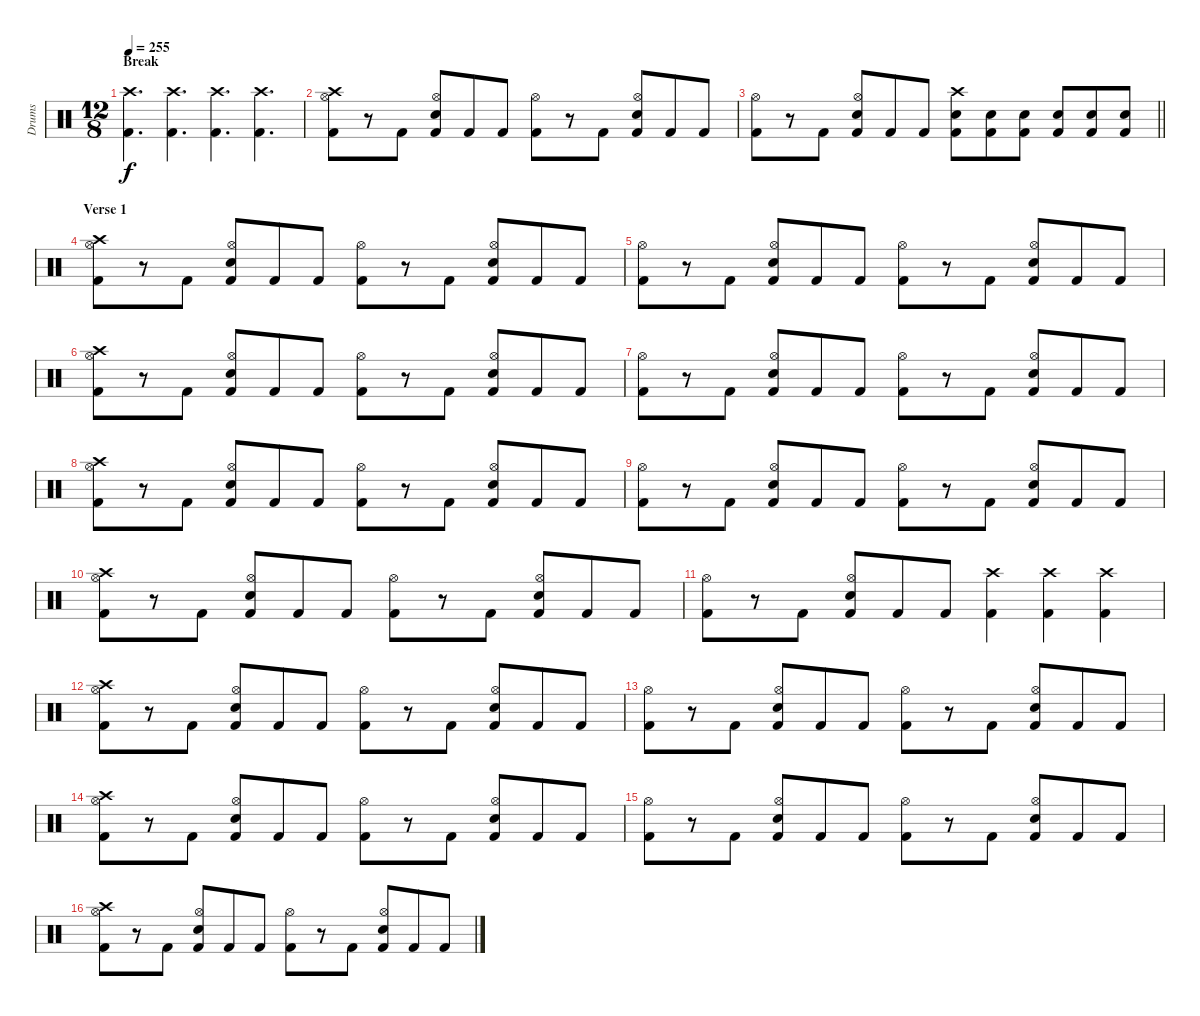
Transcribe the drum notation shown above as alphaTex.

\track ("Drums" "Drums") {instrument percussion}
\staff {score}
\articulation defaults
\ts (12 8)
\section ("" "Break")
\tempo 255
\clef neutral
\ks c
("Crash high (hit)" "Kick (hit) 2").4{d dy f} ("Crash high (hit)" "Kick (hit) 2").4{d} ("Crash high (hit)" "Kick (hit) 2").4{d} ("Crash high (hit)" "Kick (hit) 2").4{d} |
("Crash high (hit)" "Hi-Hat (open)" "Kick (hit) 2").8 r.8 "Kick (hit) 2".8 ("Hi-Hat (open)" "Snare (hit) 2" "Kick (hit) 2").8 "Kick (hit) 2".8 "Kick (hit) 2".8 ("Hi-Hat (open)" "Kick (hit) 2").8 r.8 "Kick (hit) 2".8 ("Hi-Hat (open)" "Snare (hit) 2" "Kick (hit) 2").8 "Kick (hit) 2".8 "Kick (hit) 2".8 |
\barLineRight lightlight
("Hi-Hat (open)" "Kick (hit) 2").8 r.8 "Kick (hit) 2".8 ("Hi-Hat (open)" "Snare (hit) 2" "Kick (hit) 2").8 "Kick (hit) 2".8 "Kick (hit) 2".8 ("Crash high (hit)" "Snare (hit) 2" "Kick (hit) 2").8 ("Snare (hit) 2" "Kick (hit) 2").8 ("Snare (hit) 2" "Kick (hit) 2").8 ("Snare (hit) 2" "Kick (hit) 2").8 ("Snare (hit) 2" "Kick (hit) 2").8 ("Snare (hit) 2" "Kick (hit) 2").8 |
\section ("" "Verse 1")
("Crash high (hit)" "Hi-Hat (open)" "Kick (hit) 2").8 r.8 "Kick (hit) 2".8 ("Hi-Hat (open)" "Snare (hit) 2" "Kick (hit) 2").8 "Kick (hit) 2".8 "Kick (hit) 2".8 ("Hi-Hat (open)" "Kick (hit) 2").8 r.8 "Kick (hit) 2".8 ("Hi-Hat (open)" "Snare (hit) 2" "Kick (hit) 2").8 "Kick (hit) 2".8 "Kick (hit) 2".8 |
("Hi-Hat (open)" "Kick (hit) 2").8 r.8 "Kick (hit) 2".8 ("Hi-Hat (open)" "Snare (hit) 2" "Kick (hit) 2").8 "Kick (hit) 2".8 "Kick (hit) 2".8 ("Hi-Hat (open)" "Kick (hit) 2").8 r.8 "Kick (hit) 2".8 ("Hi-Hat (open)" "Snare (hit) 2" "Kick (hit) 2").8 "Kick (hit) 2".8 "Kick (hit) 2".8 |
("Crash high (hit)" "Hi-Hat (open)" "Kick (hit) 2").8 r.8 "Kick (hit) 2".8 ("Hi-Hat (open)" "Snare (hit) 2" "Kick (hit) 2").8 "Kick (hit) 2".8 "Kick (hit) 2".8 ("Hi-Hat (open)" "Kick (hit) 2").8 r.8 "Kick (hit) 2".8 ("Hi-Hat (open)" "Snare (hit) 2" "Kick (hit) 2").8 "Kick (hit) 2".8 "Kick (hit) 2".8 |
("Hi-Hat (open)" "Kick (hit) 2").8 r.8 "Kick (hit) 2".8 ("Hi-Hat (open)" "Snare (hit) 2" "Kick (hit) 2").8 "Kick (hit) 2".8 "Kick (hit) 2".8 ("Hi-Hat (open)" "Kick (hit) 2").8 r.8 "Kick (hit) 2".8 ("Hi-Hat (open)" "Snare (hit) 2" "Kick (hit) 2").8 "Kick (hit) 2".8 "Kick (hit) 2".8 |
("Crash high (hit)" "Hi-Hat (open)" "Kick (hit) 2").8 r.8 "Kick (hit) 2".8 ("Hi-Hat (open)" "Snare (hit) 2" "Kick (hit) 2").8 "Kick (hit) 2".8 "Kick (hit) 2".8 ("Hi-Hat (open)" "Kick (hit) 2").8 r.8 "Kick (hit) 2".8 ("Hi-Hat (open)" "Snare (hit) 2" "Kick (hit) 2").8 "Kick (hit) 2".8 "Kick (hit) 2".8 |
("Hi-Hat (open)" "Kick (hit) 2").8 r.8 "Kick (hit) 2".8 ("Hi-Hat (open)" "Snare (hit) 2" "Kick (hit) 2").8 "Kick (hit) 2".8 "Kick (hit) 2".8 ("Hi-Hat (open)" "Kick (hit) 2").8 r.8 "Kick (hit) 2".8 ("Hi-Hat (open)" "Snare (hit) 2" "Kick (hit) 2").8 "Kick (hit) 2".8 "Kick (hit) 2".8 |
("Crash high (hit)" "Hi-Hat (open)" "Kick (hit) 2").8 r.8 "Kick (hit) 2".8 ("Hi-Hat (open)" "Snare (hit) 2" "Kick (hit) 2").8 "Kick (hit) 2".8 "Kick (hit) 2".8 ("Hi-Hat (open)" "Kick (hit) 2").8 r.8 "Kick (hit) 2".8 ("Hi-Hat (open)" "Snare (hit) 2" "Kick (hit) 2").8 "Kick (hit) 2".8 "Kick (hit) 2".8 |
("Hi-Hat (open)" "Kick (hit) 2").8 r.8 "Kick (hit) 2".8 ("Hi-Hat (open)" "Snare (hit) 2" "Kick (hit) 2").8 "Kick (hit) 2".8 "Kick (hit) 2".8 ("Crash high (hit)" "Kick (hit) 2").4 ("Crash high (hit)" "Kick (hit) 2").4 ("Crash high (hit)" "Kick (hit) 2").4 |
("Crash high (hit)" "Hi-Hat (open)" "Kick (hit) 2").8 r.8 "Kick (hit) 2".8 ("Hi-Hat (open)" "Snare (hit) 2" "Kick (hit) 2").8 "Kick (hit) 2".8 "Kick (hit) 2".8 ("Hi-Hat (open)" "Kick (hit) 2").8 r.8 "Kick (hit) 2".8 ("Hi-Hat (open)" "Snare (hit) 2" "Kick (hit) 2").8 "Kick (hit) 2".8 "Kick (hit) 2".8 |
("Hi-Hat (open)" "Kick (hit) 2").8 r.8 "Kick (hit) 2".8 ("Hi-Hat (open)" "Snare (hit) 2" "Kick (hit) 2").8 "Kick (hit) 2".8 "Kick (hit) 2".8 ("Hi-Hat (open)" "Kick (hit) 2").8 r.8 "Kick (hit) 2".8 ("Hi-Hat (open)" "Snare (hit) 2" "Kick (hit) 2").8 "Kick (hit) 2".8 "Kick (hit) 2".8 |
("Crash high (hit)" "Hi-Hat (open)" "Kick (hit) 2").8 r.8 "Kick (hit) 2".8 ("Hi-Hat (open)" "Snare (hit) 2" "Kick (hit) 2").8 "Kick (hit) 2".8 "Kick (hit) 2".8 ("Hi-Hat (open)" "Kick (hit) 2").8 r.8 "Kick (hit) 2".8 ("Hi-Hat (open)" "Snare (hit) 2" "Kick (hit) 2").8 "Kick (hit) 2".8 "Kick (hit) 2".8 |
("Hi-Hat (open)" "Kick (hit) 2").8 r.8 "Kick (hit) 2".8 ("Hi-Hat (open)" "Snare (hit) 2" "Kick (hit) 2").8 "Kick (hit) 2".8 "Kick (hit) 2".8 ("Hi-Hat (open)" "Kick (hit) 2").8 r.8 "Kick (hit) 2".8 ("Hi-Hat (open)" "Snare (hit) 2" "Kick (hit) 2").8 "Kick (hit) 2".8 "Kick (hit) 2".8 |
("Crash high (hit)" "Hi-Hat (open)" "Kick (hit) 2").8 r.8 "Kick (hit) 2".8 ("Hi-Hat (open)" "Snare (hit) 2" "Kick (hit) 2").8 "Kick (hit) 2".8 "Kick (hit) 2".8 ("Hi-Hat (open)" "Kick (hit) 2").8 r.8 "Kick (hit) 2".8 ("Hi-Hat (open)" "Snare (hit) 2" "Kick (hit) 2").8 "Kick (hit) 2".8 "Kick (hit) 2".8
